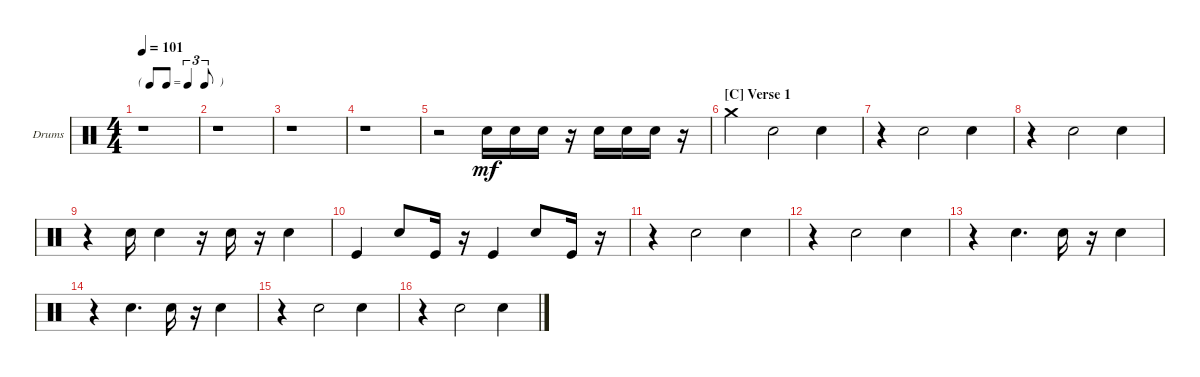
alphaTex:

\bracketExtendMode groupsimilarinstruments
\firstSystemTrackNameOrientation horizontal
\otherSystemsTrackNameOrientation horizontal
\track ("Charlie Watts" "Drums") {instrument percussion}
\staff {score}
\articulation defaults
\ts (4 4)
\tf triplet8th
\tempo 101
\clef neutral
\scale
0.333333
\ks c
r.1{dy mf} |
\scale
0.333333 r.1 |
\scale
0.333333 r.1 |
\scale
0.333333 r.1 |
\scale
0.333333 r.2 "Snare (hit) 2".16 "Snare (hit) 2".16 "Snare (hit) 2".16 r.16 "Snare (hit) 2".16 "Snare (hit) 2".16 "Snare (hit) 2".16 r.16 |
\section ("C" "Verse 1")
\scale
0.333333 "Crash medium (hit)".4 "Snare (hit) 2".2 "Snare (hit) 2".4 |
\scale
0.333333 r.4 "Snare (hit) 2".2 "Snare (hit) 2".4 |
\scale
0.333333 r.4 "Snare (hit) 2".2 "Snare (hit) 2".4 |
\scale
0.333333 r.4 "Snare (hit) 2".16 "Snare (hit) 2".4 r.16 "Snare (hit) 2".16 r.16 "Snare (hit) 2".4 |
\scale
0.333333 "Kick (hit)".4 "Snare (hit) 2".8 "Kick (hit)".16 r.16 "Kick (hit)".4 "Snare (hit) 2".8 "Kick (hit)".16 r.16 |
\scale
0.333333 r.4 "Snare (hit) 2".2 "Snare (hit) 2".4 |
\scale
0.333333 r.4 "Snare (hit) 2".2 "Snare (hit) 2".4 |
\scale
0.333333 r.4 "Snare (hit) 2".4{d} "Snare (hit) 2".16 r.16 "Snare (hit) 2".4 |
\scale
0.333333 r.4 "Snare (hit) 2".4{d} "Snare (hit) 2".16 r.16 "Snare (hit) 2".4 |
\scale
0.333333 r.4 "Snare (hit) 2".2 "Snare (hit) 2".4 |
\scale
0.333333 r.4 "Snare (hit) 2".2 "Snare (hit) 2".4
